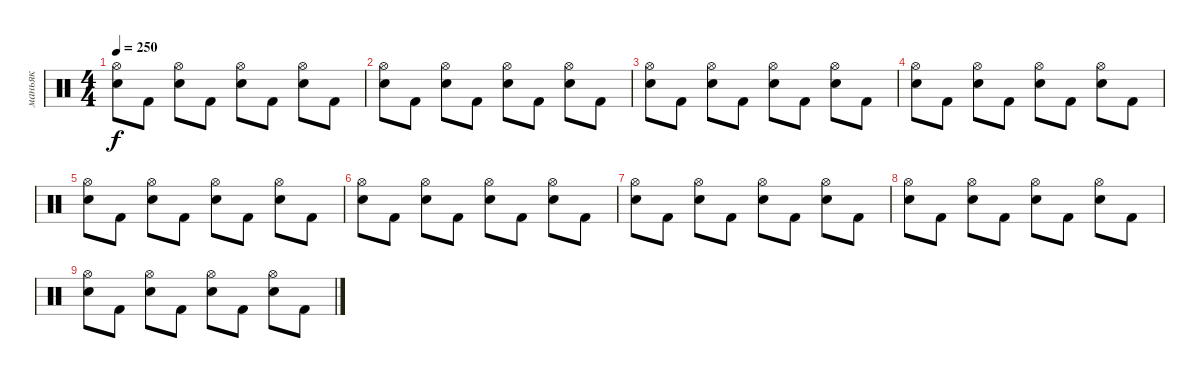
\track ("маньяк" "маньяк") {instrument percussion}
\staff {score}
\articulation defaults
\ts (4 4)
\tempo 250
\clef neutral
\ks c
("Electric Snare (hit)" "Hi-Hat (open)").8{dy f} "Kick (hit) 2".8 ("Electric Snare (hit)" "Hi-Hat (open)").8 "Kick (hit) 2".8 ("Electric Snare (hit)" "Hi-Hat (open)").8 "Kick (hit) 2".8 ("Electric Snare (hit)" "Hi-Hat (open)").8 "Kick (hit) 2".8 |
("Electric Snare (hit)" "Hi-Hat (open)").8 "Kick (hit) 2".8 ("Electric Snare (hit)" "Hi-Hat (open)").8 "Kick (hit) 2".8 ("Electric Snare (hit)" "Hi-Hat (open)").8 "Kick (hit) 2".8 ("Electric Snare (hit)" "Hi-Hat (open)").8 "Kick (hit) 2".8 |
("Electric Snare (hit)" "Hi-Hat (open)").8 "Kick (hit) 2".8 ("Electric Snare (hit)" "Hi-Hat (open)").8 "Kick (hit) 2".8 ("Electric Snare (hit)" "Hi-Hat (open)").8 "Kick (hit) 2".8 ("Electric Snare (hit)" "Hi-Hat (open)").8 "Kick (hit) 2".8 |
("Electric Snare (hit)" "Hi-Hat (open)").8 "Kick (hit) 2".8 ("Electric Snare (hit)" "Hi-Hat (open)").8 "Kick (hit) 2".8 ("Electric Snare (hit)" "Hi-Hat (open)").8 "Kick (hit) 2".8 ("Electric Snare (hit)" "Hi-Hat (open)").8 "Kick (hit) 2".8 |
("Electric Snare (hit)" "Hi-Hat (open)").8 "Kick (hit) 2".8 ("Electric Snare (hit)" "Hi-Hat (open)").8 "Kick (hit) 2".8 ("Electric Snare (hit)" "Hi-Hat (open)").8 "Kick (hit) 2".8 ("Electric Snare (hit)" "Hi-Hat (open)").8 "Kick (hit) 2".8 |
("Electric Snare (hit)" "Hi-Hat (open)").8 "Kick (hit) 2".8 ("Electric Snare (hit)" "Hi-Hat (open)").8 "Kick (hit) 2".8 ("Electric Snare (hit)" "Hi-Hat (open)").8 "Kick (hit) 2".8 ("Electric Snare (hit)" "Hi-Hat (open)").8 "Kick (hit) 2".8 |
("Electric Snare (hit)" "Hi-Hat (open)").8 "Kick (hit) 2".8 ("Electric Snare (hit)" "Hi-Hat (open)").8 "Kick (hit) 2".8 ("Electric Snare (hit)" "Hi-Hat (open)").8 "Kick (hit) 2".8 ("Electric Snare (hit)" "Hi-Hat (open)").8 "Kick (hit) 2".8 |
("Electric Snare (hit)" "Hi-Hat (open)").8 "Kick (hit) 2".8 ("Electric Snare (hit)" "Hi-Hat (open)").8 "Kick (hit) 2".8 ("Electric Snare (hit)" "Hi-Hat (open)").8 "Kick (hit) 2".8 ("Electric Snare (hit)" "Hi-Hat (open)").8 "Kick (hit) 2".8 |
("Electric Snare (hit)" "Hi-Hat (open)").8 "Kick (hit) 2".8 ("Electric Snare (hit)" "Hi-Hat (open)").8 "Kick (hit) 2".8 ("Electric Snare (hit)" "Hi-Hat (open)").8 "Kick (hit) 2".8 ("Electric Snare (hit)" "Hi-Hat (open)").8 "Kick (hit) 2".8
